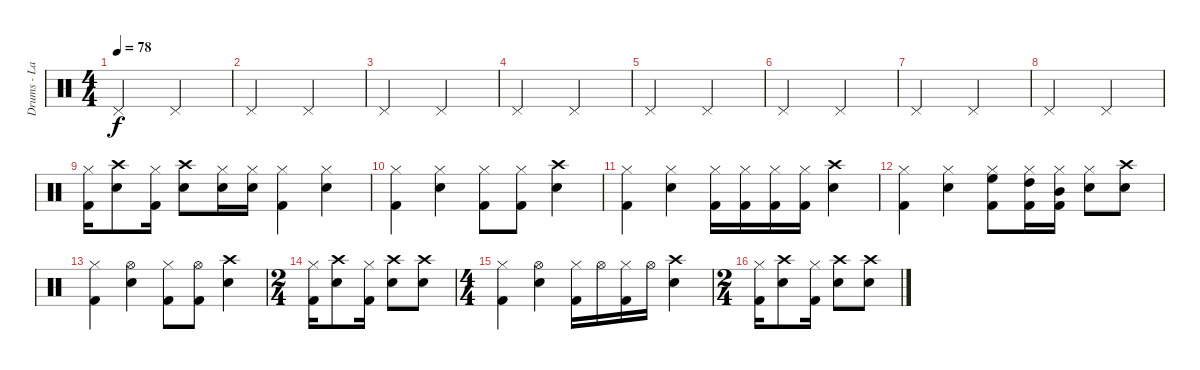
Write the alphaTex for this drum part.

\track ("Drums - Lars" "Drums - La") {instrument percussion}
\staff {score}
\articulation defaults
\ts (4 4)
\tempo 78
\clef neutral
\ks c "Pedal Hi-Hat (hit)".2{dy f} "Pedal Hi-Hat (hit)".2
|
"Pedal Hi-Hat (hit)".2 "Pedal Hi-Hat (hit)".2 |
"Pedal Hi-Hat (hit)".2 "Pedal Hi-Hat (hit)".2 |
"Pedal Hi-Hat (hit)".2 "Pedal Hi-Hat (hit)".2 |
"Pedal Hi-Hat (hit)".2 "Pedal Hi-Hat (hit)".2 |
"Pedal Hi-Hat (hit)".2 "Pedal Hi-Hat (hit)".2 |
"Pedal Hi-Hat (hit)".2 "Pedal Hi-Hat (hit)".2 |
"Pedal Hi-Hat (hit)".2 "Pedal Hi-Hat (hit)".2 |
("Hi-Hat (closed)" "Kick (hit) 2").16 ("Crash high (hit)" "Electric Snare (hit)").8 ("Hi-Hat (closed)" "Kick (hit) 2").16 ("Crash high (hit)" "Electric Snare (hit)").8 ("Hi-Hat (closed)" "Electric Snare (hit)").16 ("Hi-Hat (closed)" "Electric Snare (hit)").16 ("Hi-Hat (closed)" "Kick (hit) 2").4 ("Hi-Hat (closed)" "Electric Snare (hit)").4 |
("Hi-Hat (closed)" "Kick (hit) 2").4 ("Hi-Hat (closed)" "Electric Snare (hit)").4 ("Hi-Hat (closed)" "Kick (hit) 2").8 ("Hi-Hat (closed)" "Kick (hit) 2").8 ("Crash high (hit)" "Electric Snare (hit)").4 |
("Hi-Hat (closed)" "Kick (hit) 2").4 ("Hi-Hat (closed)" "Electric Snare (hit)").4 ("Hi-Hat (closed)" "Kick (hit) 2").16 ("Hi-Hat (closed)" "Kick (hit) 2").16 ("Hi-Hat (closed)" "Kick (hit) 2").16 ("Hi-Hat (closed)" "Kick (hit) 2").16 ("Crash high (hit)" "Electric Snare (hit)").4 |
("Hi-Hat (closed)" "Kick (hit) 2").4 ("Hi-Hat (closed)" "Electric Snare (hit)").4 ("Hi-Hat (closed)" "High Floor Tom (hit)" "Kick (hit) 2").8 ("Hi-Hat (closed)" "High Tom (hit)" "Kick (hit) 2").16 ("Hi-Hat (closed)" "Mid Tom (hit)" "Kick (hit) 2").16 ("Hi-Hat (closed)" "Electric Snare (hit)").8 ("Crash high (hit)" "Electric Snare (hit)").8 |
("Hi-Hat (closed)" "Kick (hit) 2").4 ("Hi-Hat (open)" "Electric Snare (hit)").4 ("Hi-Hat (closed)" "Kick (hit) 2").8 ("Hi-Hat (open)" "Kick (hit) 2").8 ("Crash high (hit)" "Electric Snare (hit)").4 |
\ts (2 4)
("Hi-Hat (closed)" "Kick (hit) 2").16 ("Crash high (hit)" "Electric Snare (hit)").8 ("Hi-Hat (closed)" "Kick (hit) 2").16 ("Crash high (hit)" "Electric Snare (hit)").8 ("Crash high (hit)" "Electric Snare (hit)").8 |
\ts (4 4)
("Hi-Hat (closed)" "Kick (hit) 2").4 ("Hi-Hat (open)" "Electric Snare (hit)").4 ("Hi-Hat (closed)" "Kick (hit) 2").16 "Hi-Hat (open)".16 ("Hi-Hat (closed)" "Kick (hit) 2").16 "Hi-Hat (open)".16 ("Crash high (hit)" "Electric Snare (hit)").4 |
\ts (2 4)
("Hi-Hat (closed)" "Kick (hit) 2").16 ("Crash high (hit)" "Electric Snare (hit)").8 ("Hi-Hat (closed)" "Kick (hit) 2").16 ("Crash high (hit)" "Electric Snare (hit)").8 ("Crash high (hit)" "Electric Snare (hit)").8
